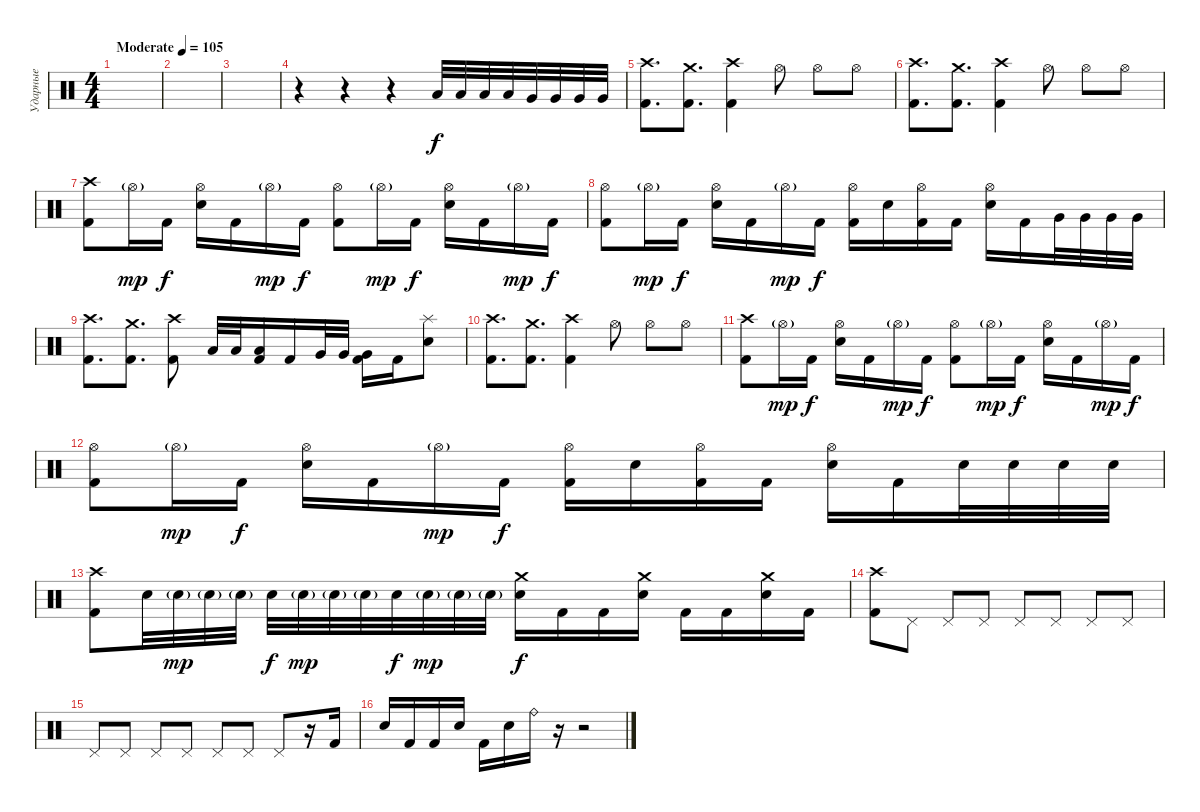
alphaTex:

\track ("Ударные" "Ударные") {instrument percussion}
\staff {score}
\articulation defaults
\ts (4 4)
\tempo (105 "Moderate")
\clef neutral
\ks c
|
|
|
r.4 r.4 r.4 "Low Tom (hit)".32 "Low Tom (hit)".32 "Low Tom (hit)".32 "Low Tom (hit)".32 "Very Low Tom (hit)".32 "Very Low Tom (hit)".32 "Very Low Tom (hit)".32 "Very Low Tom (hit)".32 |
("Crash high (hit)" "Kick (hit) 2").8{d} ("Crash medium (hit)" "Kick (hit) 2").8{d} ("Crash high (hit)" "Kick (hit) 2").4 "Hi-Hat (open)".8 "Hi-Hat (open)".8 "Hi-Hat (open)".8 |
("Crash high (hit)" "Kick (hit) 2").8{d} ("Crash medium (hit)" "Kick (hit) 2").8{d} ("Crash high (hit)" "Kick (hit) 2").4 "Hi-Hat (open)".8 "Hi-Hat (open)".8 "Hi-Hat (open)".8 |
("Crash high (hit)" "Kick (hit) 2").8 "Hi-Hat (open)"{g}.16{dy mp} "Kick (hit) 2".16{dy f} ("Hi-Hat (open)" "Electric Snare (hit)").16 "Kick (hit) 2".16 "Hi-Hat (open)"{g}.16{dy mp} "Kick (hit) 2".16{dy f} ("Hi-Hat (open)" "Kick (hit) 2").8 "Hi-Hat (open)"{g}.16{dy mp} "Kick (hit) 2".16{dy f} ("Hi-Hat (open)" "Electric Snare (hit)").16 "Kick (hit) 2".16 "Hi-Hat (open)"{g}.16{dy mp} "Kick (hit) 2".16{dy f} |
("Hi-Hat (open)" "Kick (hit) 2").8 "Hi-Hat (open)"{g}.16{dy mp} "Kick (hit) 2".16{dy f} ("Hi-Hat (open)" "Electric Snare (hit)").16 "Kick (hit) 2".16 "Hi-Hat (open)"{g}.16{dy mp} "Kick (hit) 2".16{dy f} ("Hi-Hat (open)" "Kick (hit) 2").16 "Electric Snare (hit)".16 ("Hi-Hat (open)" "Kick (hit) 2").16 "Kick (hit) 2".16 ("Hi-Hat (open)" "Electric Snare (hit)").16 "Kick (hit) 2".16 "Very Low Tom (hit)".32 "Very Low Tom (hit)".32 "Very Low Tom (hit)".32 "Very Low Tom (hit)".32 |
("Crash high (hit)" "Kick (hit) 2").8{d} ("Crash medium (hit)" "Kick (hit) 2").8{d} ("Crash high (hit)" "Kick (hit) 2").8 "Low Tom (hit)".32 "Low Tom (hit)".32 ("Low Tom (hit)" "Kick (hit) 2").16 "Kick (hit) 2".16 "Very Low Tom (hit)".32 "Very Low Tom (hit)".32 ("Very Low Tom (hit)" "Kick (hit) 2").16 "Kick (hit) 2".16 ("Splash (hit)" "Electric Snare (hit)").8 |
("Crash high (hit)" "Kick (hit) 2").8{d} ("Crash medium (hit)" "Kick (hit) 2").8{d} ("Crash high (hit)" "Kick (hit) 2").4 "Hi-Hat (open)".8 "Hi-Hat (open)".8 "Hi-Hat (open)".8 |
("Crash high (hit)" "Kick (hit) 2").8 "Hi-Hat (open)"{g}.16{dy mp} "Kick (hit) 2".16{dy f} ("Hi-Hat (open)" "Electric Snare (hit)").16 "Kick (hit) 2".16 "Hi-Hat (open)"{g}.16{dy mp} "Kick (hit) 2".16{dy f} ("Hi-Hat (open)" "Kick (hit) 2").8 "Hi-Hat (open)"{g}.16{dy mp} "Kick (hit) 2".16{dy f} ("Hi-Hat (open)" "Electric Snare (hit)").16 "Kick (hit) 2".16 "Hi-Hat (open)"{g}.16{dy mp} "Kick (hit) 2".16{dy f} |
("Hi-Hat (open)" "Kick (hit) 2").8 "Hi-Hat (open)"{g}.16{dy mp} "Kick (hit) 2".16{dy f} ("Hi-Hat (open)" "Electric Snare (hit)").16 "Kick (hit) 2".16 "Hi-Hat (open)"{g}.16{dy mp} "Kick (hit) 2".16{dy f} ("Hi-Hat (open)" "Kick (hit) 2").16 "Electric Snare (hit)".16 ("Hi-Hat (open)" "Kick (hit) 2").16 "Kick (hit) 2".16 ("Hi-Hat (open)" "Electric Snare (hit)").16 "Kick (hit) 2".16 "Electric Snare (hit)".32 "Electric Snare (hit)".32 "Electric Snare (hit)".32 "Electric Snare (hit)".32 |
("Crash high (hit)" "Kick (hit) 2").8 "Electric Snare (hit)".32 "Electric Snare (hit)"{g}.32{dy mp} "Electric Snare (hit)"{g}.32 "Electric Snare (hit)"{g}.32 "Electric Snare (hit)".32{dy f} "Electric Snare (hit)"{g}.32{dy mp} "Electric Snare (hit)"{g}.32 "Electric Snare (hit)"{g}.32 "Electric Snare (hit)".32{dy f} "Electric Snare (hit)"{g}.32{dy mp} "Electric Snare (hit)"{g}.32 "Electric Snare (hit)"{g}.32 ("Crash medium (hit)" "Electric Snare (hit)").16{dy f} "Kick (hit) 2".16 "Kick (hit) 2".16 ("Crash medium (hit)" "Electric Snare (hit)").16 "Kick (hit) 2".16 "Kick (hit) 2".16 ("Crash medium (hit)" "Electric Snare (hit)").16 "Kick (hit) 2".16 |
("Crash high (hit)" "Kick (hit) 2").8 "Pedal Hi-Hat (hit)".8 "Pedal Hi-Hat (hit)".8 "Pedal Hi-Hat (hit)".8 "Pedal Hi-Hat (hit)".8 "Pedal Hi-Hat (hit)".8 "Pedal Hi-Hat (hit)".8 "Pedal Hi-Hat (hit)".8 |
"Pedal Hi-Hat (hit)".8 "Pedal Hi-Hat (hit)".8 "Pedal Hi-Hat (hit)".8 "Pedal Hi-Hat (hit)".8 "Pedal Hi-Hat (hit)".8 "Pedal Hi-Hat (hit)".8 "Pedal Hi-Hat (hit)".8 r.16 "Kick (hit) 2".16 |
"Electric Snare (hit)".16 "Kick (hit) 2".16 "Kick (hit) 2".16 "Electric Snare (hit)".16 "Kick (hit) 2".16 "Electric Snare (hit)".16 "Ride (bell)".16 r.16 r.2
